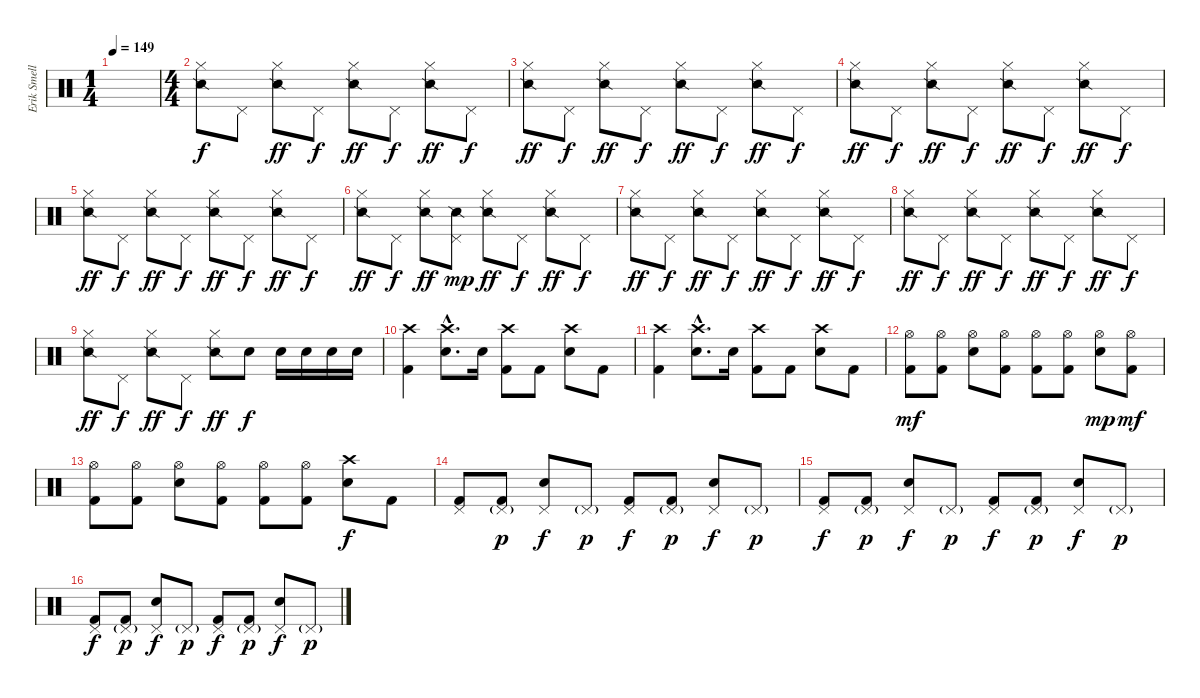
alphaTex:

\track ("Erik Smelly - Drums" "Erik Smell") {instrument percussion}
\staff {score}
\articulation defaults
\ts (1 4)
\tempo 149
\clef neutral
\ks c
|
\ts (4 4)
("Hi-Hat (closed)" "Snare (side stick) 2").8 "Pedal Hi-Hat (hit)".8{dy f} ("Hi-Hat (closed)" "Snare (side stick) 2").8{dy ff} "Pedal Hi-Hat (hit)".8{dy f} ("Hi-Hat (closed)" "Snare (side stick) 2").8{dy ff} "Pedal Hi-Hat (hit)".8{dy f} ("Hi-Hat (closed)" "Snare (side stick) 2").8{dy ff} "Pedal Hi-Hat (hit)".8{dy f} |
("Hi-Hat (closed)" "Snare (side stick) 2").8{dy ff} "Pedal Hi-Hat (hit)".8{dy f} ("Hi-Hat (closed)" "Snare (side stick) 2").8{dy ff} "Pedal Hi-Hat (hit)".8{dy f} ("Hi-Hat (closed)" "Snare (side stick) 2").8{dy ff} "Pedal Hi-Hat (hit)".8{dy f} ("Hi-Hat (closed)" "Snare (side stick) 2").8{dy ff} "Pedal Hi-Hat (hit)".8{dy f} |
("Hi-Hat (closed)" "Snare (side stick) 2").8{dy ff} "Pedal Hi-Hat (hit)".8{dy f} ("Hi-Hat (closed)" "Snare (side stick) 2").8{dy ff} "Pedal Hi-Hat (hit)".8{dy f} ("Hi-Hat (closed)" "Snare (side stick) 2").8{dy ff} "Pedal Hi-Hat (hit)".8{dy f} ("Hi-Hat (closed)" "Snare (side stick) 2").8{dy ff} "Pedal Hi-Hat (hit)".8{dy f} |
("Hi-Hat (closed)" "Snare (side stick) 2").8{dy ff} "Pedal Hi-Hat (hit)".8{dy f} ("Hi-Hat (closed)" "Snare (side stick) 2").8{dy ff} "Pedal Hi-Hat (hit)".8{dy f} ("Hi-Hat (closed)" "Snare (side stick) 2").8{dy ff} "Pedal Hi-Hat (hit)".8{dy f} ("Hi-Hat (closed)" "Snare (side stick) 2").8{dy ff} "Pedal Hi-Hat (hit)".8{dy f} |
("Hi-Hat (closed)" "Snare (side stick) 2").8{dy ff} "Pedal Hi-Hat (hit)".8{dy f} ("Hi-Hat (closed)" "Snare (side stick) 2").8{dy ff} ("Pedal Hi-Hat (hit)" "Snare (side stick) 2").8{dy mp} ("Hi-Hat (closed)" "Snare (side stick) 2").8{dy ff} "Pedal Hi-Hat (hit)".8{dy f} ("Hi-Hat (closed)" "Snare (side stick) 2").8{dy ff} "Pedal Hi-Hat (hit)".8{dy f} |
("Hi-Hat (closed)" "Snare (side stick) 2").8{dy ff} "Pedal Hi-Hat (hit)".8{dy f} ("Hi-Hat (closed)" "Snare (side stick) 2").8{dy ff} "Pedal Hi-Hat (hit)".8{dy f} ("Hi-Hat (closed)" "Snare (side stick) 2").8{dy ff} "Pedal Hi-Hat (hit)".8{dy f} ("Hi-Hat (closed)" "Snare (side stick) 2").8{dy ff} "Pedal Hi-Hat (hit)".8{dy f} |
("Hi-Hat (closed)" "Snare (side stick) 2").8{dy ff} "Pedal Hi-Hat (hit)".8{dy f} ("Hi-Hat (closed)" "Snare (side stick) 2").8{dy ff} "Pedal Hi-Hat (hit)".8{dy f} ("Hi-Hat (closed)" "Snare (side stick) 2").8{dy ff} "Pedal Hi-Hat (hit)".8{dy f} ("Hi-Hat (closed)" "Snare (side stick) 2").8{dy ff} "Pedal Hi-Hat (hit)".8{dy f} |
("Hi-Hat (closed)" "Snare (side stick) 2").8{dy ff} "Pedal Hi-Hat (hit)".8{dy f} ("Hi-Hat (closed)" "Snare (side stick) 2").8{dy ff} "Pedal Hi-Hat (hit)".8{dy f} ("Hi-Hat (closed)" "Snare (side stick) 2").8{dy ff} "Electric Snare (hit)".8{dy f} "Electric Snare (hit)".16 "Electric Snare (hit)".16 "Electric Snare (hit)".16 "Electric Snare (hit)".16 |
("Crash high (hit)" "Kick (hit) 2").4 ("Crash high (hit)"{hac} "Electric Snare (hit)"{hac}).8{d} "Electric Snare (hit)".16 ("Crash high (hit)" "Kick (hit) 2").8 "Kick (hit) 2".8 ("Crash high (hit)" "Electric Snare (hit)").8 "Kick (hit) 2".8 |
("Crash high (hit)" "Kick (hit) 2").4 ("Crash high (hit)"{hac} "Electric Snare (hit)"{hac}).8{d} "Electric Snare (hit)".16 ("Crash high (hit)" "Kick (hit) 2").8 "Kick (hit) 2".8 ("Crash high (hit)" "Electric Snare (hit)").8 "Kick (hit) 2".8 |
("Hi-Hat (open)" "Kick (hit) 2").8{dy mf} ("Hi-Hat (open)" "Kick (hit) 2").8 ("Hi-Hat (open)" "Electric Snare (hit)").8 ("Hi-Hat (open)" "Kick (hit) 2").8 ("Hi-Hat (open)" "Kick (hit) 2").8 ("Hi-Hat (open)" "Kick (hit) 2").8 ("Hi-Hat (open)" "Electric Snare (hit)").8{dy mp} ("Hi-Hat (open)" "Kick (hit) 2").8{dy mf} |
("Hi-Hat (open)" "Kick (hit) 2").8 ("Hi-Hat (open)" "Kick (hit) 2").8 ("Hi-Hat (open)" "Electric Snare (hit)").8 ("Hi-Hat (open)" "Kick (hit) 2").8 ("Hi-Hat (open)" "Kick (hit) 2").8 ("Hi-Hat (open)" "Kick (hit) 2").8 ("Crash high (hit)" "Electric Snare (hit)").8{dy f} "Kick (hit) 2".8 |
("Pedal Hi-Hat (hit)" "Kick (hit) 2").8 ("Pedal Hi-Hat (hit)"{g} "Kick (hit) 2").8{dy p} ("Pedal Hi-Hat (hit)" "Electric Snare (hit)").8{dy f} "Pedal Hi-Hat (hit)"{g}.8{dy p} ("Pedal Hi-Hat (hit)" "Kick (hit) 2").8{dy f} ("Pedal Hi-Hat (hit)"{g} "Kick (hit) 2").8{dy p} ("Pedal Hi-Hat (hit)" "Electric Snare (hit)").8{dy f} "Pedal Hi-Hat (hit)"{g}.8{dy p} |
("Pedal Hi-Hat (hit)" "Kick (hit) 2").8{dy f} ("Pedal Hi-Hat (hit)"{g} "Kick (hit) 2").8{dy p} ("Pedal Hi-Hat (hit)" "Electric Snare (hit)").8{dy f} "Pedal Hi-Hat (hit)"{g}.8{dy p} ("Pedal Hi-Hat (hit)" "Kick (hit) 2").8{dy f} ("Pedal Hi-Hat (hit)"{g} "Kick (hit) 2").8{dy p} ("Pedal Hi-Hat (hit)" "Electric Snare (hit)").8{dy f} "Pedal Hi-Hat (hit)"{g}.8{dy p} |
("Pedal Hi-Hat (hit)" "Kick (hit) 2").8{dy f} ("Pedal Hi-Hat (hit)"{g} "Kick (hit) 2").8{dy p} ("Pedal Hi-Hat (hit)" "Electric Snare (hit)").8{dy f} "Pedal Hi-Hat (hit)"{g}.8{dy p} ("Pedal Hi-Hat (hit)" "Kick (hit) 2").8{dy f} ("Pedal Hi-Hat (hit)"{g} "Kick (hit) 2").8{dy p} ("Pedal Hi-Hat (hit)" "Electric Snare (hit)").8{dy f} "Pedal Hi-Hat (hit)"{g}.8{dy p}
